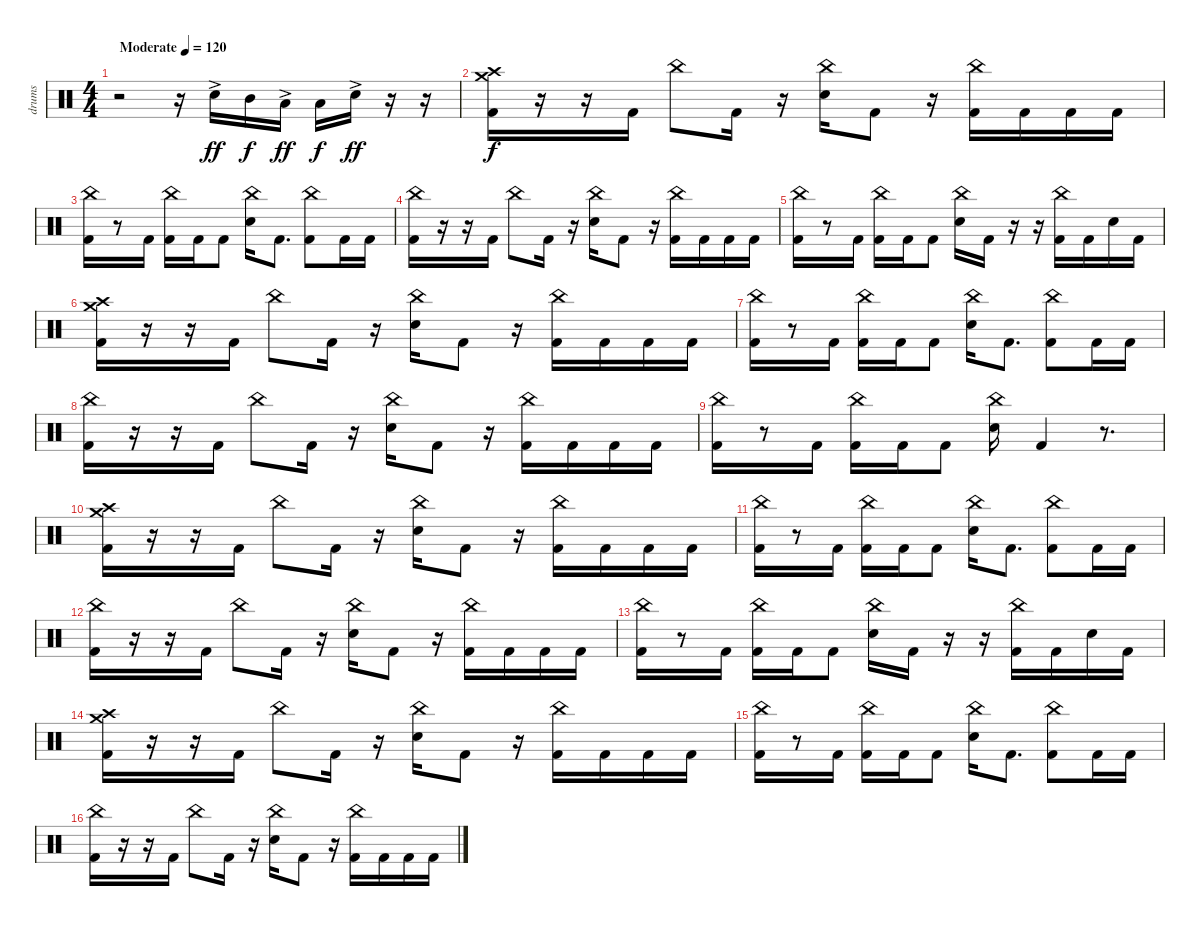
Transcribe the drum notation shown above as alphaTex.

\track ("drums" "drums") {instrument percussion}
\staff {score}
\articulation defaults
\ts (4 4)
\tempo (120 "Moderate")
\clef neutral
\ks c
r.2{dy ff volume 7} r.16 "Electric Snare (hit)"{ac}.16 "Mid Tom (hit)".16{dy f} "Low Tom (hit)"{ac}.16{dy ff} "Low Tom (hit)".16{dy f} "Electric Snare (hit)"{ac}.16{dy ff} r.16 r.16 |
("Crash medium (hit)" "Crash high (hit)" "Kick (hit) 2").16{dy f} r.16 r.16 "Kick (hit) 2".16 "China (hit)".8 "Kick (hit) 2".16 r.16 ("China (hit)" "Electric Snare (hit)").16 "Kick (hit) 2".8 r.16 ("China (hit)" "Kick (hit) 2").16 "Kick (hit) 2".16 "Kick (hit) 2".16 "Kick (hit) 2".16 |
("China (hit)" "Kick (hit) 2").16 r.8 "Kick (hit) 2".16 ("China (hit)" "Kick (hit) 2").16 "Kick (hit) 2".16 "Kick (hit) 2".8 ("China (hit)" "Electric Snare (hit)").16 "Kick (hit) 2".8{d} ("China (hit)" "Kick (hit) 2").8 "Kick (hit) 2".16 "Kick (hit) 2".16 |
("China (hit)" "Kick (hit) 2").16 r.16 r.16 "Kick (hit) 2".16 "China (hit)".8 "Kick (hit) 2".16 r.16 ("China (hit)" "Electric Snare (hit)").16 "Kick (hit) 2".8 r.16 ("China (hit)" "Kick (hit) 2").16 "Kick (hit) 2".16 "Kick (hit) 2".16 "Kick (hit) 2".16 |
("China (hit)" "Kick (hit) 2").16 r.8 "Kick (hit) 2".16 ("China (hit)" "Kick (hit) 2").16 "Kick (hit) 2".16 "Kick (hit) 2".8 ("China (hit)" "Electric Snare (hit)").16 "Kick (hit) 2".16 r.16 r.16 ("China (hit)" "Kick (hit) 2").16 "Kick (hit) 2".16 "Electric Snare (hit)".16 "Kick (hit) 2".16 |
("Crash medium (hit)" "Crash high (hit)" "Kick (hit) 2").16 r.16 r.16 "Kick (hit) 2".16 "China (hit)".8 "Kick (hit) 2".16 r.16 ("China (hit)" "Electric Snare (hit)").16 "Kick (hit) 2".8 r.16 ("China (hit)" "Kick (hit) 2").16 "Kick (hit) 2".16 "Kick (hit) 2".16 "Kick (hit) 2".16 |
("China (hit)" "Kick (hit) 2").16 r.8 "Kick (hit) 2".16 ("China (hit)" "Kick (hit) 2").16 "Kick (hit) 2".16 "Kick (hit) 2".8 ("China (hit)" "Electric Snare (hit)").16 "Kick (hit) 2".8{d} ("China (hit)" "Kick (hit) 2").8 "Kick (hit) 2".16 "Kick (hit) 2".16 |
("China (hit)" "Kick (hit) 2").16 r.16 r.16 "Kick (hit) 2".16 "China (hit)".8 "Kick (hit) 2".16 r.16 ("China (hit)" "Electric Snare (hit)").16 "Kick (hit) 2".8 r.16 ("China (hit)" "Kick (hit) 2").16 "Kick (hit) 2".16 "Kick (hit) 2".16 "Kick (hit) 2".16 |
("China (hit)" "Kick (hit) 2").16 r.8 "Kick (hit) 2".16 ("China (hit)" "Kick (hit) 2").16 "Kick (hit) 2".16 "Kick (hit) 2".8 ("China (hit)" "Electric Snare (hit)").16 "Kick (hit) 2".4 r.8{d volume 13} |
("Crash medium (hit)" "Crash high (hit)" "Kick (hit) 2").16 r.16 r.16 "Kick (hit) 2".16 "China (hit)".8 "Kick (hit) 2".16 r.16 ("China (hit)" "Electric Snare (hit)").16 "Kick (hit) 2".8 r.16 ("China (hit)" "Kick (hit) 2").16 "Kick (hit) 2".16 "Kick (hit) 2".16 "Kick (hit) 2".16 |
("China (hit)" "Kick (hit) 2").16 r.8 "Kick (hit) 2".16 ("China (hit)" "Kick (hit) 2").16 "Kick (hit) 2".16 "Kick (hit) 2".8 ("China (hit)" "Electric Snare (hit)").16 "Kick (hit) 2".8{d} ("China (hit)" "Kick (hit) 2").8 "Kick (hit) 2".16 "Kick (hit) 2".16 |
("China (hit)" "Kick (hit) 2").16 r.16 r.16 "Kick (hit) 2".16 "China (hit)".8 "Kick (hit) 2".16 r.16 ("China (hit)" "Electric Snare (hit)").16 "Kick (hit) 2".8 r.16 ("China (hit)" "Kick (hit) 2").16 "Kick (hit) 2".16 "Kick (hit) 2".16 "Kick (hit) 2".16 |
("China (hit)" "Kick (hit) 2").16 r.8 "Kick (hit) 2".16 ("China (hit)" "Kick (hit) 2").16 "Kick (hit) 2".16 "Kick (hit) 2".8 ("China (hit)" "Electric Snare (hit)").16 "Kick (hit) 2".16 r.16 r.16 ("China (hit)" "Kick (hit) 2").16 "Kick (hit) 2".16 "Electric Snare (hit)".16 "Kick (hit) 2".16 |
("Crash medium (hit)" "Crash high (hit)" "Kick (hit) 2").16 r.16 r.16 "Kick (hit) 2".16 "China (hit)".8 "Kick (hit) 2".16 r.16 ("China (hit)" "Electric Snare (hit)").16 "Kick (hit) 2".8 r.16 ("China (hit)" "Kick (hit) 2").16 "Kick (hit) 2".16 "Kick (hit) 2".16 "Kick (hit) 2".16 |
("China (hit)" "Kick (hit) 2").16 r.8 "Kick (hit) 2".16 ("China (hit)" "Kick (hit) 2").16 "Kick (hit) 2".16 "Kick (hit) 2".8 ("China (hit)" "Electric Snare (hit)").16 "Kick (hit) 2".8{d} ("China (hit)" "Kick (hit) 2").8 "Kick (hit) 2".16 "Kick (hit) 2".16 |
("China (hit)" "Kick (hit) 2").16 r.16 r.16 "Kick (hit) 2".16 "China (hit)".8 "Kick (hit) 2".16 r.16 ("China (hit)" "Electric Snare (hit)").16 "Kick (hit) 2".8 r.16 ("China (hit)" "Kick (hit) 2").16 "Kick (hit) 2".16 "Kick (hit) 2".16 "Kick (hit) 2".16
